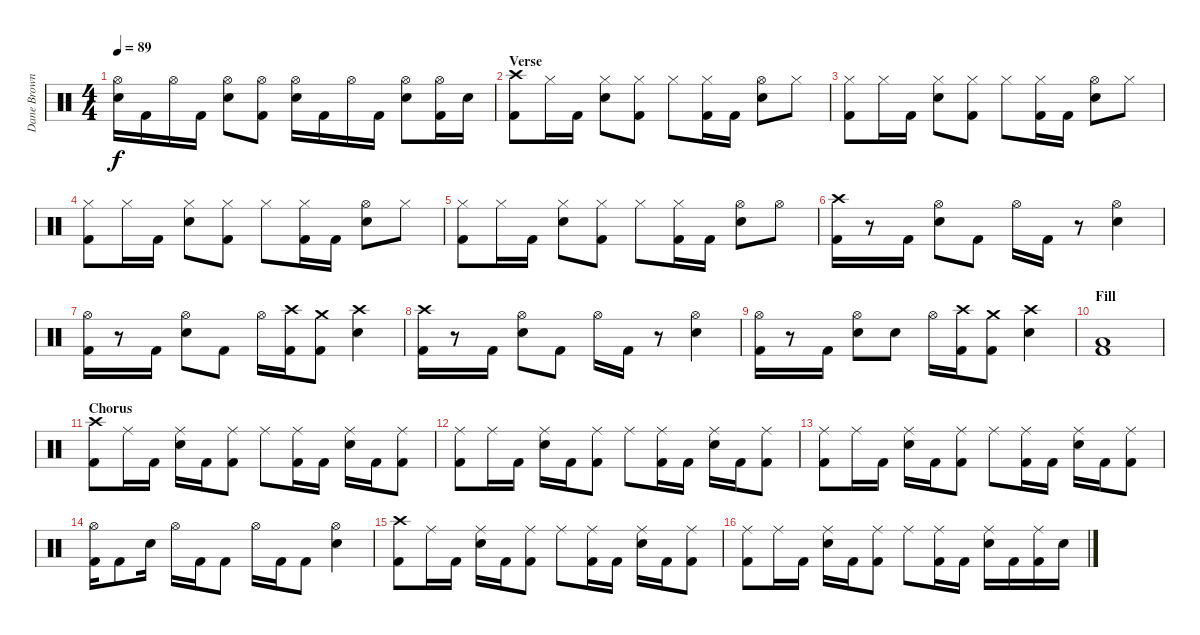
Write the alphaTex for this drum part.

\track ("Dane Brown (drums)" "Dane Brown") {instrument percussion}
\staff {score}
\articulation defaults
\ts (4 4)
\tempo 89
\clef neutral
\ks c
("Hi-Hat (open)" "Electric Snare (hit)").16{dy f} "Kick (hit) 2".16 "Hi-Hat (open)".16 "Kick (hit) 2".16 ("Hi-Hat (open)" "Electric Snare (hit)").8 ("Hi-Hat (open)" "Kick (hit) 2").8 ("Hi-Hat (open)" "Electric Snare (hit)").16 "Kick (hit) 2".16 "Hi-Hat (open)".16 "Kick (hit) 2".16 ("Hi-Hat (open)" "Electric Snare (hit)").8 ("Hi-Hat (open)" "Kick (hit) 2").16 "Electric Snare (hit)".16 |
\section ("" "Verse")
("Crash high (hit)" "Kick (hit) 2").8 "Hi-Hat (closed)".16 "Kick (hit) 2".16 ("Hi-Hat (closed)" "Electric Snare (hit)").8 ("Hi-Hat (closed)" "Kick (hit) 2").8 "Hi-Hat (closed)".8 ("Hi-Hat (closed)" "Kick (hit) 2").16 "Kick (hit) 2".16 ("Hi-Hat (open)" "Electric Snare (hit)").8 "Hi-Hat (closed)".8 |
("Hi-Hat (closed)" "Kick (hit) 2").8 "Hi-Hat (closed)".16 "Kick (hit) 2".16 ("Hi-Hat (closed)" "Electric Snare (hit)").8 ("Hi-Hat (closed)" "Kick (hit) 2").8 "Hi-Hat (closed)".8 ("Hi-Hat (closed)" "Kick (hit) 2").16 "Kick (hit) 2".16 ("Hi-Hat (open)" "Electric Snare (hit)").8 "Hi-Hat (closed)".8 |
("Hi-Hat (closed)" "Kick (hit) 2").8 "Hi-Hat (closed)".16 "Kick (hit) 2".16 ("Hi-Hat (closed)" "Electric Snare (hit)").8 ("Hi-Hat (closed)" "Kick (hit) 2").8 "Hi-Hat (closed)".8 ("Hi-Hat (closed)" "Kick (hit) 2").16 "Kick (hit) 2".16 ("Hi-Hat (open)" "Electric Snare (hit)").8 "Hi-Hat (closed)".8 |
("Hi-Hat (closed)" "Kick (hit) 2").8 "Hi-Hat (closed)".16 "Kick (hit) 2".16 ("Hi-Hat (closed)" "Electric Snare (hit)").8 ("Hi-Hat (closed)" "Kick (hit) 2").8 "Hi-Hat (closed)".8 ("Hi-Hat (closed)" "Kick (hit) 2").16 "Kick (hit) 2".16 ("Hi-Hat (open)" "Electric Snare (hit)").8 "Hi-Hat (open)".8 |
("Crash high (hit)" "Kick (hit) 2").16 r.8 "Kick (hit) 2".16 ("Hi-Hat (open)" "Electric Snare (hit)").8 "Kick (hit) 2".8 "Hi-Hat (open)".16 "Kick (hit) 2".16 r.8 ("Hi-Hat (open)" "Electric Snare (hit)").4 |
("Hi-Hat (open)" "Kick (hit) 2").16 r.8 "Kick (hit) 2".16 ("Hi-Hat (open)" "Electric Snare (hit)").8 "Kick (hit) 2".8 "Hi-Hat (open)".16 ("Crash high (hit)" "Kick (hit) 2").16 ("Crash medium (hit)" "Kick (hit) 2").8 ("Crash high (hit)" "Electric Snare (hit)").4 |
("Crash high (hit)" "Kick (hit) 2").16 r.8 "Kick (hit) 2".16 ("Hi-Hat (open)" "Electric Snare (hit)").8 "Kick (hit) 2".8 "Hi-Hat (open)".16 "Kick (hit) 2".16 r.8 ("Hi-Hat (open)" "Electric Snare (hit)").4 |
("Hi-Hat (open)" "Kick (hit) 2").16 r.8 "Kick (hit) 2".16 ("Hi-Hat (open)" "Electric Snare (hit)").8 "Electric Snare (hit)".8 "Hi-Hat (open)".16 ("Crash high (hit)" "Kick (hit) 2").16 ("Crash medium (hit)" "Kick (hit) 2").8 ("Crash high (hit)" "Electric Snare (hit)").4 |
\section ("" "Fill")
("Low Floor Tom (hit)" "Kick (hit) 2").1 |
\section ("" "Chorus")
("Crash high (hit)" "Kick (hit) 2").8 "Ride (middle)".16 "Kick (hit) 2".16 ("Ride (middle)" "Electric Snare (hit)").16 "Kick (hit) 2".16 ("Ride (middle)" "Kick (hit) 2").8 "Ride (middle)".8 ("Ride (middle)" "Kick (hit) 2").16 "Kick (hit) 2".16 ("Ride (middle)" "Electric Snare (hit)").16 "Kick (hit) 2".16 ("Ride (middle)" "Kick (hit) 2").8 |
("Ride (middle)" "Kick (hit) 2").8 "Ride (middle)".16 "Kick (hit) 2".16 ("Ride (middle)" "Electric Snare (hit)").16 "Kick (hit) 2".16 ("Ride (middle)" "Kick (hit) 2").8 "Ride (middle)".8 ("Ride (middle)" "Kick (hit) 2").16 "Kick (hit) 2".16 ("Ride (middle)" "Electric Snare (hit)").16 "Kick (hit) 2".16 ("Ride (middle)" "Kick (hit) 2").8 |
("Ride (middle)" "Kick (hit) 2").8 "Ride (middle)".16 "Kick (hit) 2".16 ("Ride (middle)" "Electric Snare (hit)").16 "Kick (hit) 2".16 ("Ride (middle)" "Kick (hit) 2").8 "Ride (middle)".8 ("Ride (middle)" "Kick (hit) 2").16 "Kick (hit) 2".16 ("Ride (middle)" "Electric Snare (hit)").16 "Kick (hit) 2".16 ("Ride (middle)" "Kick (hit) 2").8 |
("Hi-Hat (open)" "Kick (hit) 2").16 "Kick (hit) 2".8 "Electric Snare (hit)".16 "Hi-Hat (open)".16 "Kick (hit) 2".16 "Kick (hit) 2".8 "Hi-Hat (open)".16 "Kick (hit) 2".16 "Kick (hit) 2".8 ("Hi-Hat (open)" "Electric Snare (hit)").4 |
("Crash high (hit)" "Kick (hit) 2").8 "Ride (middle)".16 "Kick (hit) 2".16 ("Ride (middle)" "Electric Snare (hit)").16 "Kick (hit) 2".16 ("Ride (middle)" "Kick (hit) 2").8 "Ride (middle)".8 ("Ride (middle)" "Kick (hit) 2").16 "Kick (hit) 2".16 ("Ride (middle)" "Electric Snare (hit)").16 "Kick (hit) 2".16 ("Ride (middle)" "Kick (hit) 2").8 |
("Ride (middle)" "Kick (hit) 2").8 "Ride (middle)".16 "Kick (hit) 2".16 ("Ride (middle)" "Electric Snare (hit)").16 "Kick (hit) 2".16 ("Ride (middle)" "Kick (hit) 2").8 "Ride (middle)".8 ("Ride (middle)" "Kick (hit) 2").16 "Kick (hit) 2".16 ("Ride (middle)" "Electric Snare (hit)").16 "Kick (hit) 2".16 ("Ride (middle)" "Kick (hit) 2").16 "Electric Snare (hit)".16
